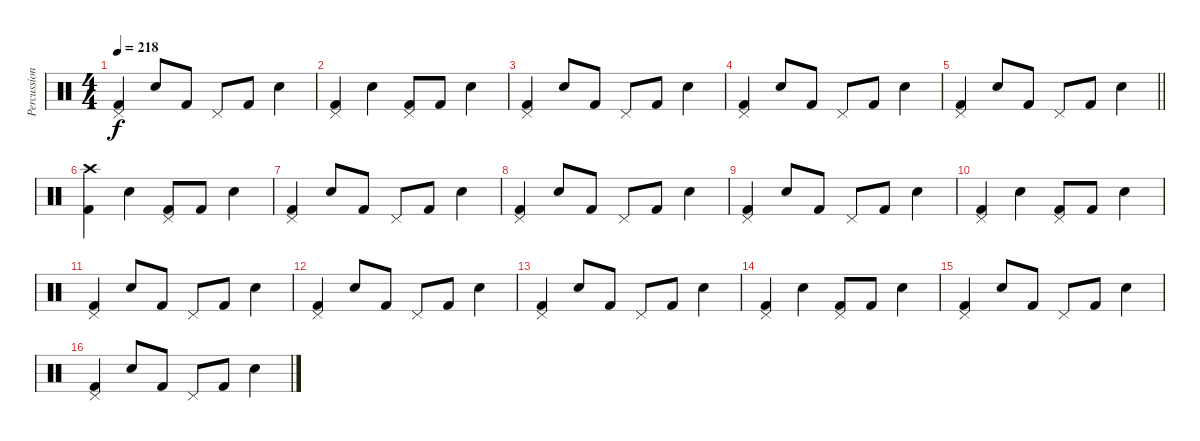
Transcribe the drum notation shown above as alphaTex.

\track ("Percussion" "Percussion") {instrument percussion}
\staff {score}
\articulation defaults
\ts (4 4)
\tempo 218
\clef neutral
\ks c
("Kick (hit) 2" "Pedal Hi-Hat (hit)").4{dy f} "Snare (hit) 2".8 "Kick (hit) 2".8 "Pedal Hi-Hat (hit)".8 "Kick (hit) 2".8 "Snare (hit) 2".4 |
("Kick (hit) 2" "Pedal Hi-Hat (hit)").4 "Snare (hit) 2".4 ("Kick (hit) 2" "Pedal Hi-Hat (hit)").8 "Kick (hit) 2".8 "Snare (hit) 2".4 |
("Kick (hit) 2" "Pedal Hi-Hat (hit)").4 "Snare (hit) 2".8 "Kick (hit) 2".8 "Pedal Hi-Hat (hit)".8 "Kick (hit) 2".8 "Snare (hit) 2".4 |
("Kick (hit) 2" "Pedal Hi-Hat (hit)").4 "Snare (hit) 2".8 "Kick (hit) 2".8 "Pedal Hi-Hat (hit)".8 "Kick (hit) 2".8 "Snare (hit) 2".4 |
\barLineRight lightlight
("Kick (hit) 2" "Pedal Hi-Hat (hit)").4 "Snare (hit) 2".8 "Kick (hit) 2".8 "Pedal Hi-Hat (hit)".8 "Kick (hit) 2".8 "Snare (hit) 2".4 |
("Kick (hit) 2" "Crash high (hit)").4 "Snare (hit) 2".4 ("Kick (hit) 2" "Pedal Hi-Hat (hit)").8 "Kick (hit) 2".8 "Snare (hit) 2".4 |
("Kick (hit) 2" "Pedal Hi-Hat (hit)").4 "Snare (hit) 2".8 "Kick (hit) 2".8 "Pedal Hi-Hat (hit)".8 "Kick (hit) 2".8 "Snare (hit) 2".4 |
("Kick (hit) 2" "Pedal Hi-Hat (hit)").4 "Snare (hit) 2".8 "Kick (hit) 2".8 "Pedal Hi-Hat (hit)".8 "Kick (hit) 2".8 "Snare (hit) 2".4 |
("Kick (hit) 2" "Pedal Hi-Hat (hit)").4 "Snare (hit) 2".8 "Kick (hit) 2".8 "Pedal Hi-Hat (hit)".8 "Kick (hit) 2".8 "Snare (hit) 2".4 |
("Kick (hit) 2" "Pedal Hi-Hat (hit)").4 "Snare (hit) 2".4 ("Kick (hit) 2" "Pedal Hi-Hat (hit)").8 "Kick (hit) 2".8 "Snare (hit) 2".4 |
("Kick (hit) 2" "Pedal Hi-Hat (hit)").4 "Snare (hit) 2".8 "Kick (hit) 2".8 "Pedal Hi-Hat (hit)".8 "Kick (hit) 2".8 "Snare (hit) 2".4 |
("Kick (hit) 2" "Pedal Hi-Hat (hit)").4 "Snare (hit) 2".8 "Kick (hit) 2".8 "Pedal Hi-Hat (hit)".8 "Kick (hit) 2".8 "Snare (hit) 2".4 |
("Kick (hit) 2" "Pedal Hi-Hat (hit)").4 "Snare (hit) 2".8 "Kick (hit) 2".8 "Pedal Hi-Hat (hit)".8 "Kick (hit) 2".8 "Snare (hit) 2".4 |
("Kick (hit) 2" "Pedal Hi-Hat (hit)").4 "Snare (hit) 2".4 ("Kick (hit) 2" "Pedal Hi-Hat (hit)").8 "Kick (hit) 2".8 "Snare (hit) 2".4 |
("Kick (hit) 2" "Pedal Hi-Hat (hit)").4 "Snare (hit) 2".8 "Kick (hit) 2".8 "Pedal Hi-Hat (hit)".8 "Kick (hit) 2".8 "Snare (hit) 2".4 |
("Kick (hit) 2" "Pedal Hi-Hat (hit)").4 "Snare (hit) 2".8 "Kick (hit) 2".8 "Pedal Hi-Hat (hit)".8 "Kick (hit) 2".8 "Snare (hit) 2".4
